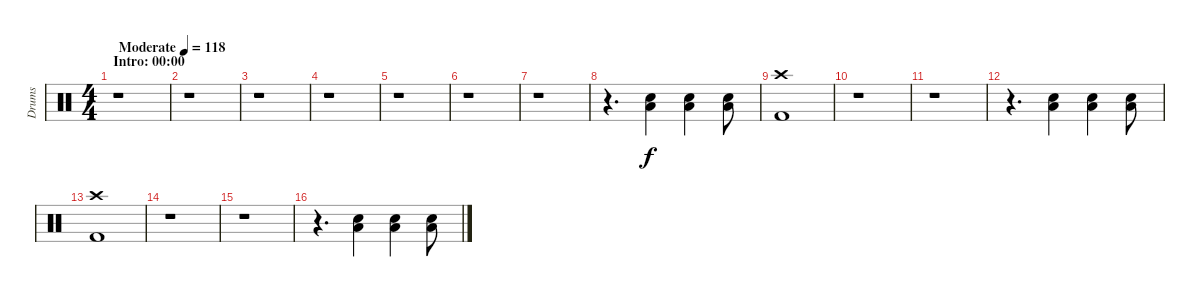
\track ("Drums" "Drums") {instrument percussion}
\staff {score}
\articulation defaults
\ts (4 4)
\section ("" "Intro: 00:00")
\tempo (118 "Moderate")
\clef neutral
\ks c
r.1{dy f} |
r.1 |
r.1 |
r.1 |
r.1 |
r.1 |
r.1 |
r.4{d} ("Low Tom (hit)" "Electric Snare (hit)").4 ("Low Tom (hit)" "Electric Snare (hit)").4 ("Low Tom (hit)" "Electric Snare (hit)").8 |
("Crash high (hit)" "Kick (hit) 2").1 |
r.1 |
r.1 |
r.4{d} ("Low Tom (hit)" "Electric Snare (hit)").4 ("Low Tom (hit)" "Electric Snare (hit)").4 ("Low Tom (hit)" "Electric Snare (hit)").8 |
("Crash high (hit)" "Kick (hit) 2").1 |
r.1 |
r.1 |
r.4{d} ("Low Tom (hit)" "Electric Snare (hit)").4 ("Low Tom (hit)" "Electric Snare (hit)").4 ("Low Tom (hit)" "Electric Snare (hit)").8
